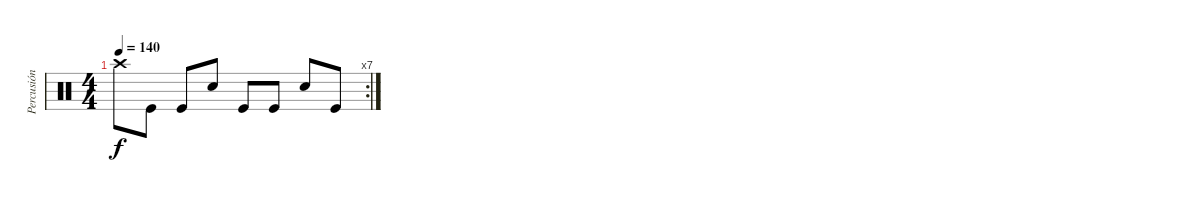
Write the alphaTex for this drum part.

\track ("Percusión" "Percusión") {instrument percussion}
\staff {score}
\articulation defaults
\rc 7
\ts (4 4)
\tempo 140
\clef neutral
\ks c "Crash high (hit)".8{dy f} "Kick (hit)".8 "Kick (hit)".8 "Snare (hit) 2".8 "Kick (hit)".8 "Kick (hit)".8 "Snare (hit) 2".8 "Kick (hit)".8
